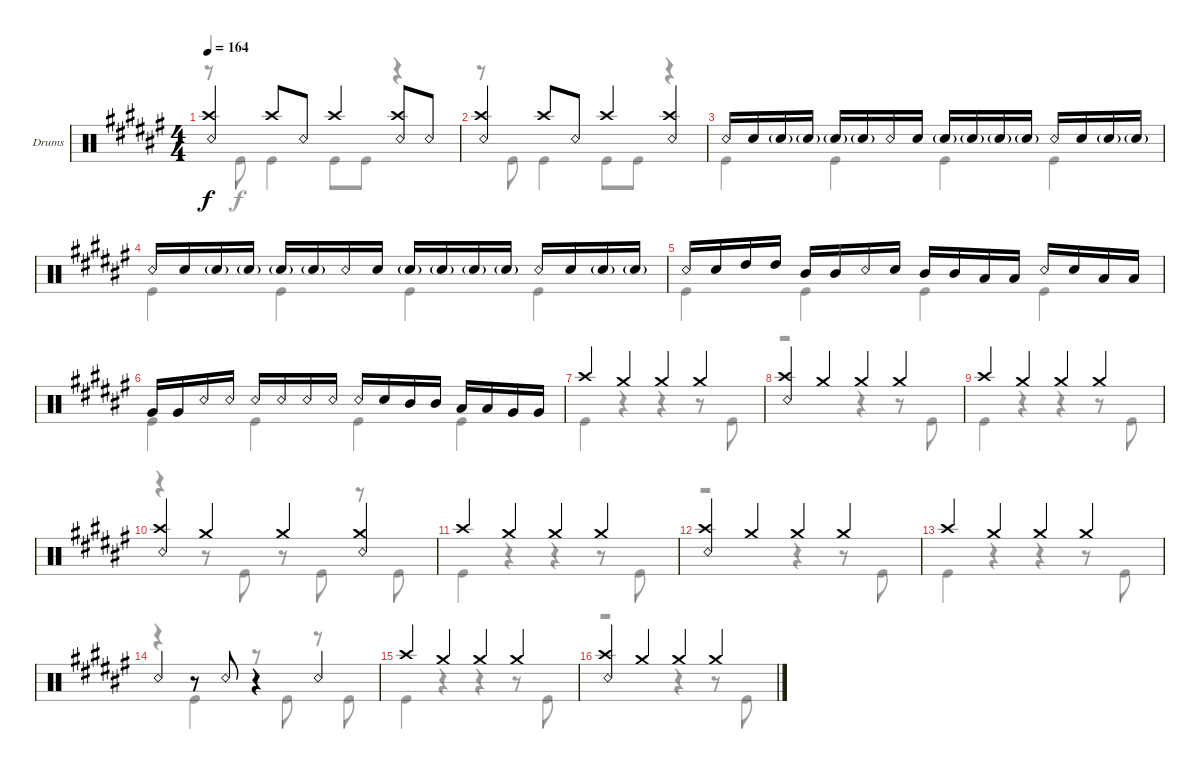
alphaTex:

\defaultSystemsLayout 4
\bracketExtendMode groupsimilarinstruments
\firstSystemTrackNameOrientation horizontal
\otherSystemsTrackNameOrientation horizontal
\track ("Drums" "Drums") {instrument percussion}
\staff {score}
\articulation defaults
\voice
\ts (4 4)
\tempo 164
\clef neutral
\ks f#
("Snare (rim shot)" "Crash high (hit)").4{dy f} "Crash high (hit)".8 "Snare (rim shot)".8 "Crash high (hit)".4 ("Crash high (hit)" "Snare (rim shot)").8 "Snare (rim shot)".8 |
("Snare (rim shot)" "Crash high (hit)").4 "Crash high (hit)".8 "Snare (rim shot)".8 "Crash high (hit)".4 ("Snare (rim shot)" "Crash high (hit)").4 |
"Snare (rim shot)".16 "Snare (hit) 2".16 "Snare (hit) 2"{g}.16 "Snare (hit) 2"{g}.16 "Snare (hit) 2"{g}.16 "Snare (hit) 2"{g}.16 "Snare (rim shot)".16 "Snare (hit) 2".16 "Snare (hit) 2"{g}.16 "Snare (hit) 2"{g}.16 "Snare (hit) 2"{g}.16 "Snare (hit) 2"{g}.16 "Snare (rim shot)".16 "Snare (hit) 2".16 "Snare (hit) 2"{g}.16 "Snare (hit) 2"{g}.16 |
"Snare (rim shot)".16 "Snare (hit) 2".16 "Snare (hit) 2"{g}.16 "Snare (hit) 2"{g}.16 "Snare (hit) 2"{g}.16 "Snare (hit) 2"{g}.16 "Snare (rim shot)".16 "Snare (hit) 2".16 "Snare (hit) 2"{g}.16 "Snare (hit) 2"{g}.16 "Snare (hit) 2"{g}.16 "Snare (hit) 2"{g}.16 "Snare (rim shot)".16 "Snare (hit) 2".16 "Snare (hit) 2"{g}.16 "Snare (hit) 2"{g}.16 |
"Snare (rim shot)".16 "Snare (hit) 2".16 "High Tom (hit)".16 "High Tom (hit)".16 "Mid Tom (hit)".16 "Mid Tom (hit)".16 "Snare (rim shot)".16 "Snare (hit) 2".16 "Mid Tom (hit)".16 "Mid Tom (hit)".16 "Low Tom (hit)".16 "Low Tom (hit)".16 "Snare (rim shot)".16 "Snare (hit) 2".16 "Low Tom (hit)".16 "Low Tom (hit)".16 |
"Very Low Tom (hit)".16 "Very Low Tom (hit)".16 "Snare (rim shot)".16 "Snare (rim shot)".16 "Snare (rim shot)".16 "Snare (rim shot)".16 "Snare (rim shot)".16 "Snare (rim shot)".16 "Snare (rim shot)".16 "Snare (hit) 2".16 "Mid Tom (hit)".16 "Mid Tom (hit)".16 "Low Tom (hit)".16 "Low Tom (hit)".16 "Very Low Tom (hit)".16 "Very Low Tom (hit)".16 |
"Crash high (hit)".4 "Crash medium (hit)".4 "Crash medium (hit)".4 "Crash medium (hit)".4 |
("Snare (rim shot)" "Crash high (hit)").4 "Crash medium (hit)".4 "Crash medium (hit)".4 "Crash medium (hit)".4 |
"Crash high (hit)".4 "Crash medium (hit)".4 "Crash medium (hit)".4 "Crash medium (hit)".4 |
("Snare (rim shot)" "Crash high (hit)").4 "Crash medium (hit)".4 "Crash medium (hit)".4 ("Crash medium (hit)" "Snare (rim shot)").4 |
"Crash high (hit)".4 "Crash medium (hit)".4 "Crash medium (hit)".4 "Crash medium (hit)".4 |
("Snare (rim shot)" "Crash high (hit)").4 "Crash medium (hit)".4 "Crash medium (hit)".4 "Crash medium (hit)".4 |
"Crash high (hit)".4 "Crash medium (hit)".4 "Crash medium (hit)".4 "Crash medium (hit)".4 |
"Snare (rim shot)".4 r.8 "Snare (rim shot)".8 r.4 "Snare (rim shot)".4 |
"Crash high (hit)".4 "Crash medium (hit)".4 "Crash medium (hit)".4 "Crash medium (hit)".4 |
("Snare (rim shot)" "Crash high (hit)").4 "Crash medium (hit)".4 "Crash medium (hit)".4 "Crash medium (hit)".4
\voice
\clef neutral
\ottava regular
\simile none
\ks f#
r.8{dy f} "Kick (hit)".8 "Kick (hit)".4 "Kick (hit)".8 "Kick (hit)".8 r.4 |
r.8 "Kick (hit)".8 "Kick (hit)".4 "Kick (hit)".8 "Kick (hit)".8 r.4 |
"Kick (hit)".4 "Kick (hit)".4 "Kick (hit)".4 "Kick (hit)".4 |
"Kick (hit)".4 "Kick (hit)".4 "Kick (hit)".4 "Kick (hit)".4 |
"Kick (hit)".4 "Kick (hit)".4 "Kick (hit)".4 "Kick (hit)".4 |
"Kick (hit)".4 "Kick (hit)".4 "Kick (hit)".4 "Kick (hit)".4 |
"Kick (hit)".4 r.4 r.4 r.8 "Kick (hit)".8 |
r.2 r.4 r.8 "Kick (hit)".8 |
"Kick (hit)".4 r.4 r.4 r.8 "Kick (hit)".8 |
r.4 r.8 "Kick (hit)".8 r.8 "Kick (hit)".8 r.8 "Kick (hit)".8 |
"Kick (hit)".4 r.4 r.4 r.8 "Kick (hit)".8 |
r.2 r.4 r.8 "Kick (hit)".8 |
"Kick (hit)".4 r.4 r.4 r.8 "Kick (hit)".8 |
r.4 "Kick (hit)".4 r.8 "Kick (hit)".8 r.8 "Kick (hit)".8 |
"Kick (hit)".4 r.4 r.4 r.8 "Kick (hit)".8 |
r.2 r.4 r.8 "Kick (hit)".8
